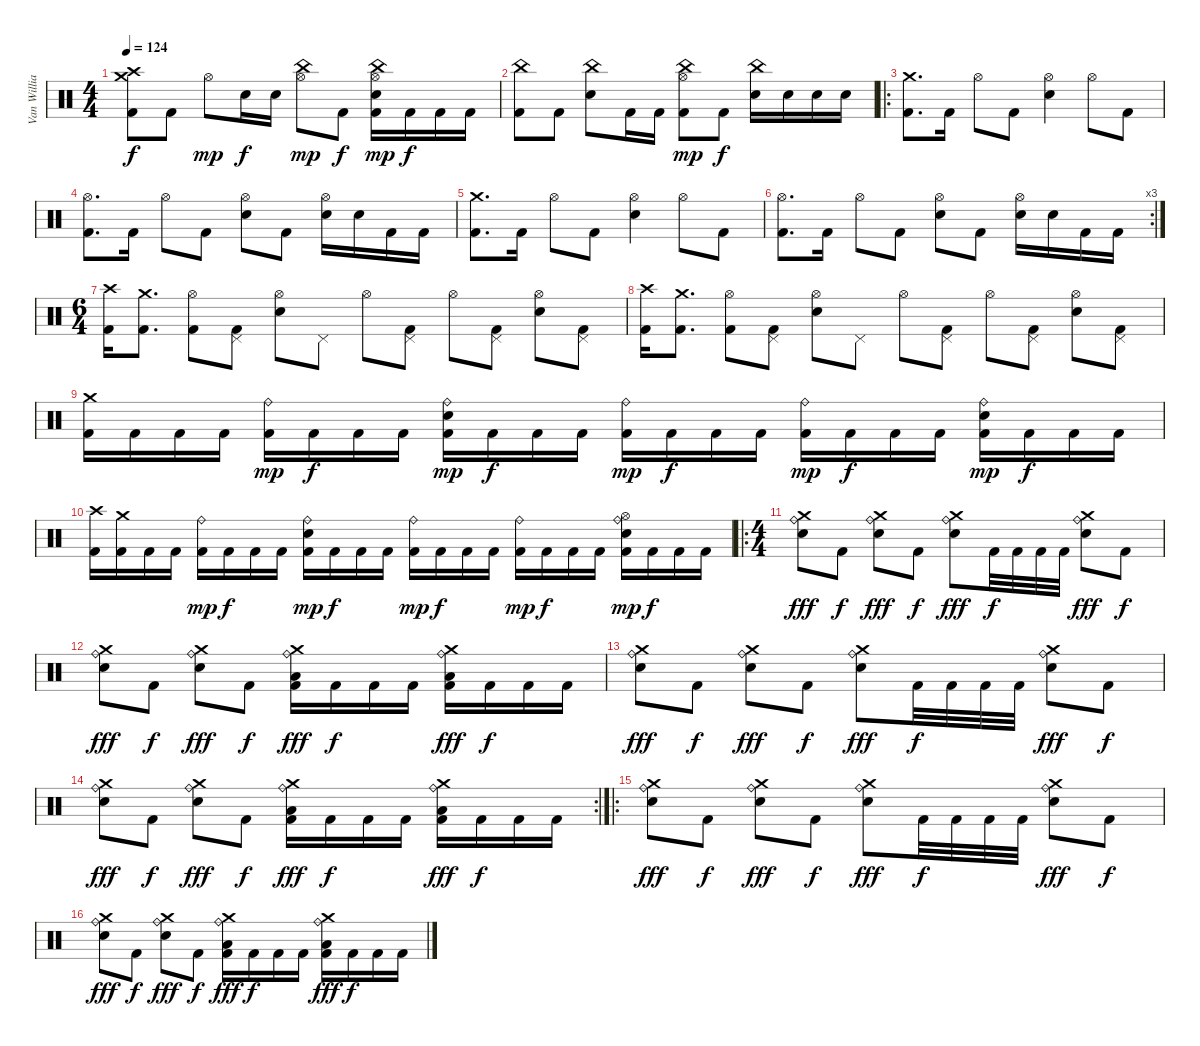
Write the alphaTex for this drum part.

\track ("Van Williams" "Van Willia") {instrument percussion}
\staff {score}
\articulation defaults
\ts (4 4)
\tempo 124
\clef neutral
\ks c
("Crash medium (hit)" "Crash high (hit)" "Kick (hit) 2").8{dy f} "Kick (hit) 2".8 "Hi-Hat (open)".8{dy mp} "Electric Snare (hit)".16{dy f} "Electric Snare (hit)".16 ("China (hit)" "Hi-Hat (open)").8{dy mp} "Kick (hit) 2".8{dy f} ("China (hit)" "Hi-Hat (open)" "Electric Snare (hit)" "Kick (hit) 2").16{dy mp} "Kick (hit) 2".16{dy f} "Kick (hit) 2".16 "Kick (hit) 2".16 |
("China (hit)" "Kick (hit) 2").8 "Kick (hit) 2".8 ("China (hit)" "Electric Snare (hit)").8 "Kick (hit) 2".16 "Kick (hit) 2".16 ("China (hit)" "Hi-Hat (open)" "Kick (hit) 2").8{dy mp} "Kick (hit) 2".8{dy f} ("China (hit)" "Electric Snare (hit)").16 "Electric Snare (hit)".16 "Electric Snare (hit)".16 "Electric Snare (hit)".16 |
\ro
("Crash medium (hit)" "Kick (hit) 2").8{d} "Kick (hit) 2".16 "Hi-Hat (open)".8 "Kick (hit) 2".8 ("Hi-Hat (open)" "Electric Snare (hit)").4 "Hi-Hat (open)".8 "Kick (hit) 2".8 |
("Hi-Hat (open)" "Kick (hit) 2").8{d} "Kick (hit) 2".16 "Hi-Hat (open)".8 "Kick (hit) 2".8 ("Hi-Hat (open)" "Electric Snare (hit)").8 "Kick (hit) 2".8 ("Hi-Hat (open)" "Electric Snare (hit)").16 "Electric Snare (hit)".16 "Kick (hit) 2".16 "Kick (hit) 2".16 |
("Crash medium (hit)" "Kick (hit) 2").8{d} "Kick (hit) 2".16 "Hi-Hat (open)".8 "Kick (hit) 2".8 ("Hi-Hat (open)" "Electric Snare (hit)").4 "Hi-Hat (open)".8 "Kick (hit) 2".8 |
\rc 3
("Hi-Hat (open)" "Kick (hit) 2").8{d} "Kick (hit) 2".16 "Hi-Hat (open)".8 "Kick (hit) 2".8 ("Hi-Hat (open)" "Electric Snare (hit)").8 "Kick (hit) 2".8 ("Hi-Hat (open)" "Electric Snare (hit)").16 "Electric Snare (hit)".16 "Kick (hit) 2".16 "Kick (hit) 2".16 |
\ts (6 4)
("Crash high (hit)" "Kick (hit) 2").16 ("Crash medium (hit)" "Kick (hit) 2").8{d} ("Hi-Hat (open)" "Kick (hit) 2").8 ("Pedal Hi-Hat (hit)" "Kick (hit) 2").8 ("Hi-Hat (open)" "Electric Snare (hit)").8 "Pedal Hi-Hat (hit)".8 "Hi-Hat (open)".8 ("Pedal Hi-Hat (hit)" "Kick (hit) 2").8 "Hi-Hat (open)".8 ("Pedal Hi-Hat (hit)" "Kick (hit) 2").8 ("Hi-Hat (open)" "Electric Snare (hit)").8 ("Pedal Hi-Hat (hit)" "Kick (hit) 2").8 |
("Crash high (hit)" "Kick (hit) 2").16 ("Crash medium (hit)" "Kick (hit) 2").8{d} ("Hi-Hat (open)" "Kick (hit) 2").8 ("Pedal Hi-Hat (hit)" "Kick (hit) 2").8 ("Hi-Hat (open)" "Electric Snare (hit)").8 "Pedal Hi-Hat (hit)".8 "Hi-Hat (open)".8 ("Pedal Hi-Hat (hit)" "Kick (hit) 2").8 "Hi-Hat (open)".8 ("Pedal Hi-Hat (hit)" "Kick (hit) 2").8 ("Hi-Hat (open)" "Electric Snare (hit)").8 ("Pedal Hi-Hat (hit)" "Kick (hit) 2").8 |
("Crash medium (hit)" "Kick (hit) 2").16 "Kick (hit) 2".16 "Kick (hit) 2".16 "Kick (hit) 2".16 ("Ride (bell)" "Kick (hit) 2").16{dy mp} "Kick (hit) 2".16{dy f} "Kick (hit) 2".16 "Kick (hit) 2".16 ("Ride (bell)" "Electric Snare (hit)" "Kick (hit) 2").16{dy mp} "Kick (hit) 2".16{dy f} "Kick (hit) 2".16 "Kick (hit) 2".16 ("Ride (bell)" "Kick (hit) 2").16{dy mp} "Kick (hit) 2".16{dy f} "Kick (hit) 2".16 "Kick (hit) 2".16 ("Ride (bell)" "Kick (hit) 2").16{dy mp} "Kick (hit) 2".16{dy f} "Kick (hit) 2".16 "Kick (hit) 2".16 ("Ride (bell)" "Electric Snare (hit)" "Kick (hit) 2").16{dy mp} "Kick (hit) 2".16{dy f} "Kick (hit) 2".16 "Kick (hit) 2".16 |
("Crash high (hit)" "Kick (hit) 2").16 ("Crash medium (hit)" "Kick (hit) 2").16 "Kick (hit) 2".16 "Kick (hit) 2".16 ("Ride (bell)" "Kick (hit) 2").16{dy mp} "Kick (hit) 2".16{dy f} "Kick (hit) 2".16 "Kick (hit) 2".16 ("Ride (bell)" "Electric Snare (hit)" "Kick (hit) 2").16{dy mp} "Kick (hit) 2".16{dy f} "Kick (hit) 2".16 "Kick (hit) 2".16 ("Ride (bell)" "Kick (hit) 2").16{dy mp} "Kick (hit) 2".16{dy f} "Kick (hit) 2".16 "Kick (hit) 2".16 ("Ride (bell)" "Kick (hit) 2").16{dy mp} "Kick (hit) 2".16{dy f} "Kick (hit) 2".16 "Kick (hit) 2".16 ("Ride (bell)" "Hi-Hat (open)" "Electric Snare (hit)" "Kick (hit) 2").16{dy mp} "Kick (hit) 2".16{dy f} "Kick (hit) 2".16 "Kick (hit) 2".16 |
\ro
\ts (4 4)
("Crash medium (hit)" "Ride (bell)" "Electric Snare (hit)").8{dy fff} "Kick (hit) 2".8{dy f} ("Crash medium (hit)" "Ride (bell)" "Electric Snare (hit)").8{dy fff} "Kick (hit) 2".8{dy f} ("Crash medium (hit)" "Ride (bell)" "Electric Snare (hit)").8{dy fff} "Kick (hit) 2".32{dy f} "Kick (hit) 2".32 "Kick (hit) 2".32 "Kick (hit) 2".32 ("Crash medium (hit)" "Ride (bell)" "Electric Snare (hit)").8{dy fff} "Kick (hit) 2".8{dy f} |
("Crash medium (hit)" "Ride (bell)" "Electric Snare (hit)").8{dy fff} "Kick (hit) 2".8{dy f} ("Crash medium (hit)" "Ride (bell)" "Electric Snare (hit)").8{dy fff} "Kick (hit) 2".8{dy f} ("Crash medium (hit)" "Ride (bell)" "Low Floor Tom (hit)" "Kick (hit) 2").16{dy fff} "Kick (hit) 2".16{dy f} "Kick (hit) 2".16 "Kick (hit) 2".16 ("Crash medium (hit)" "Ride (bell)" "Low Floor Tom (hit)" "Kick (hit) 2").16{dy fff} "Kick (hit) 2".16{dy f} "Kick (hit) 2".16 "Kick (hit) 2".16 |
("Crash medium (hit)" "Ride (bell)" "Electric Snare (hit)").8{dy fff} "Kick (hit) 2".8{dy f} ("Crash medium (hit)" "Ride (bell)" "Electric Snare (hit)").8{dy fff} "Kick (hit) 2".8{dy f} ("Crash medium (hit)" "Ride (bell)" "Electric Snare (hit)").8{dy fff} "Kick (hit) 2".32{dy f} "Kick (hit) 2".32 "Kick (hit) 2".32 "Kick (hit) 2".32 ("Crash medium (hit)" "Ride (bell)" "Electric Snare (hit)").8{dy fff} "Kick (hit) 2".8{dy f} |
\rc 2
("Crash medium (hit)" "Ride (bell)" "Electric Snare (hit)").8{dy fff} "Kick (hit) 2".8{dy f} ("Crash medium (hit)" "Ride (bell)" "Electric Snare (hit)").8{dy fff} "Kick (hit) 2".8{dy f} ("Crash medium (hit)" "Ride (bell)" "Low Floor Tom (hit)" "Kick (hit) 2").16{dy fff} "Kick (hit) 2".16{dy f} "Kick (hit) 2".16 "Kick (hit) 2".16 ("Crash medium (hit)" "Ride (bell)" "Low Floor Tom (hit)" "Kick (hit) 2").16{dy fff} "Kick (hit) 2".16{dy f} "Kick (hit) 2".16 "Kick (hit) 2".16 |
\ro
("Crash medium (hit)" "Ride (bell)" "Electric Snare (hit)").8{dy fff} "Kick (hit) 2".8{dy f} ("Crash medium (hit)" "Ride (bell)" "Electric Snare (hit)").8{dy fff} "Kick (hit) 2".8{dy f} ("Crash medium (hit)" "Ride (bell)" "Electric Snare (hit)").8{dy fff} "Kick (hit) 2".32{dy f} "Kick (hit) 2".32 "Kick (hit) 2".32 "Kick (hit) 2".32 ("Crash medium (hit)" "Ride (bell)" "Electric Snare (hit)").8{dy fff} "Kick (hit) 2".8{dy f} |
("Crash medium (hit)" "Ride (bell)" "Electric Snare (hit)").8{dy fff} "Kick (hit) 2".8{dy f} ("Crash medium (hit)" "Ride (bell)" "Electric Snare (hit)").8{dy fff} "Kick (hit) 2".8{dy f} ("Crash medium (hit)" "Ride (bell)" "Low Floor Tom (hit)" "Kick (hit) 2").16{dy fff} "Kick (hit) 2".16{dy f} "Kick (hit) 2".16 "Kick (hit) 2".16 ("Crash medium (hit)" "Ride (bell)" "Low Floor Tom (hit)" "Kick (hit) 2").16{dy fff} "Kick (hit) 2".16{dy f} "Kick (hit) 2".16 "Kick (hit) 2".16
